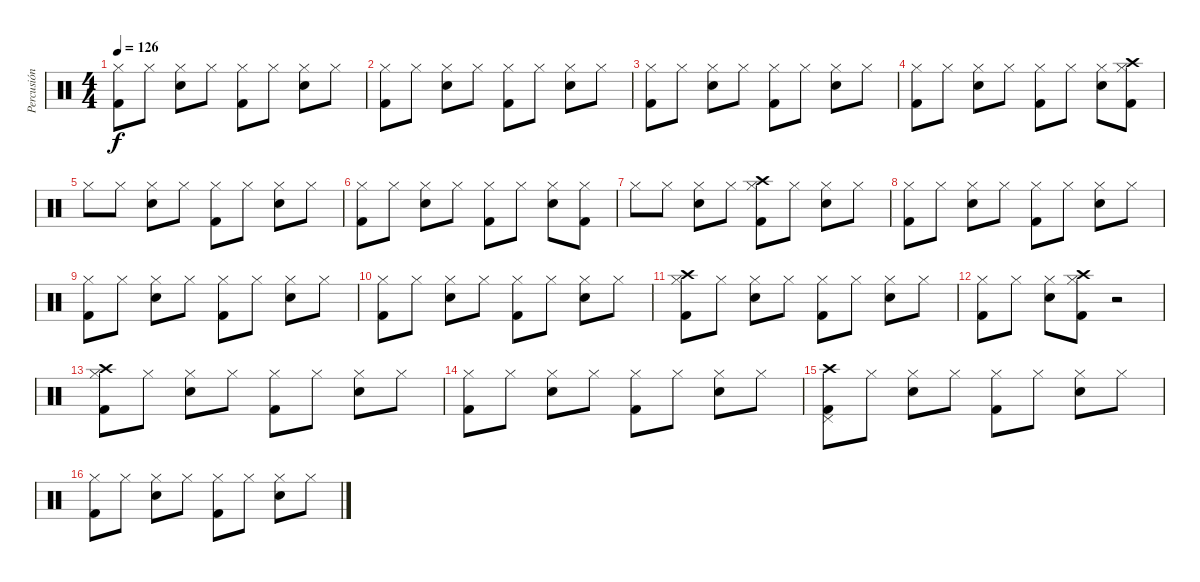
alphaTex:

\track ("Percusión" "Percusión") {instrument percussion}
\staff {score}
\articulation defaults
\ts (4 4)
\tempo 126
\clef neutral
\ks c
("Hi-Hat (closed)" "Kick (hit) 2").8{dy f} "Hi-Hat (closed)".8 ("Hi-Hat (closed)" "Snare (hit) 2").8 "Hi-Hat (closed)".8 ("Hi-Hat (closed)" "Kick (hit) 2").8 "Hi-Hat (closed)".8 ("Hi-Hat (closed)" "Snare (hit) 2").8 "Hi-Hat (closed)".8 |
("Hi-Hat (closed)" "Kick (hit) 2").8 "Hi-Hat (closed)".8 ("Hi-Hat (closed)" "Snare (hit) 2").8 "Hi-Hat (closed)".8 ("Hi-Hat (closed)" "Kick (hit) 2").8 "Hi-Hat (closed)".8 ("Hi-Hat (closed)" "Snare (hit) 2").8 "Hi-Hat (closed)".8 |
("Hi-Hat (closed)" "Kick (hit) 2").8 "Hi-Hat (closed)".8 ("Hi-Hat (closed)" "Snare (hit) 2").8 "Hi-Hat (closed)".8 ("Hi-Hat (closed)" "Kick (hit) 2").8 "Hi-Hat (closed)".8 ("Hi-Hat (closed)" "Snare (hit) 2").8 "Hi-Hat (closed)".8 |
("Hi-Hat (closed)" "Kick (hit) 2").8 "Hi-Hat (closed)".8 ("Hi-Hat (closed)" "Snare (hit) 2").8 "Hi-Hat (closed)".8 ("Hi-Hat (closed)" "Kick (hit) 2").8 "Hi-Hat (closed)".8 ("Hi-Hat (closed)" "Snare (hit) 2").8 ("Hi-Hat (closed)" "Crash high (hit)" "Kick (hit) 2").8 |
"Hi-Hat (closed)".8 "Hi-Hat (closed)".8 ("Hi-Hat (closed)" "Snare (hit) 2").8 "Hi-Hat (closed)".8 ("Hi-Hat (closed)" "Kick (hit) 2").8 "Hi-Hat (closed)".8 ("Hi-Hat (closed)" "Snare (hit) 2").8 "Hi-Hat (closed)".8 |
("Hi-Hat (closed)" "Kick (hit) 2").8 "Hi-Hat (closed)".8 ("Hi-Hat (closed)" "Snare (hit) 2").8 "Hi-Hat (closed)".8 ("Hi-Hat (closed)" "Kick (hit) 2").8 "Hi-Hat (closed)".8 ("Hi-Hat (closed)" "Snare (hit) 2").8 ("Hi-Hat (closed)" "Kick (hit) 2").8 |
"Hi-Hat (closed)".8 "Hi-Hat (closed)".8 ("Hi-Hat (closed)" "Snare (hit) 2").8 "Hi-Hat (closed)".8 ("Hi-Hat (closed)" "Crash high (hit)" "Kick (hit) 2").8 "Hi-Hat (closed)".8 ("Hi-Hat (closed)" "Snare (hit) 2").8 "Hi-Hat (closed)".8 |
("Hi-Hat (closed)" "Kick (hit) 2").8 "Hi-Hat (closed)".8 ("Hi-Hat (closed)" "Snare (hit) 2").8 "Hi-Hat (closed)".8 ("Hi-Hat (closed)" "Kick (hit) 2").8 "Hi-Hat (closed)".8 ("Hi-Hat (closed)" "Snare (hit) 2").8 "Hi-Hat (closed)".8 |
("Hi-Hat (closed)" "Kick (hit) 2").8 "Hi-Hat (closed)".8 ("Hi-Hat (closed)" "Snare (hit) 2").8 "Hi-Hat (closed)".8 ("Hi-Hat (closed)" "Kick (hit) 2").8 "Hi-Hat (closed)".8 ("Hi-Hat (closed)" "Snare (hit) 2").8 "Hi-Hat (closed)".8 |
("Hi-Hat (closed)" "Kick (hit) 2").8 "Hi-Hat (closed)".8 ("Hi-Hat (closed)" "Snare (hit) 2").8 "Hi-Hat (closed)".8 ("Hi-Hat (closed)" "Kick (hit) 2").8 "Hi-Hat (closed)".8 ("Hi-Hat (closed)" "Snare (hit) 2").8 "Hi-Hat (closed)".8 |
("Hi-Hat (closed)" "Crash high (hit)" "Kick (hit) 2").8 "Hi-Hat (closed)".8 ("Hi-Hat (closed)" "Snare (hit) 2").8 "Hi-Hat (closed)".8 ("Hi-Hat (closed)" "Kick (hit) 2").8 "Hi-Hat (closed)".8 ("Hi-Hat (closed)" "Snare (hit) 2").8 "Hi-Hat (closed)".8 |
("Hi-Hat (closed)" "Kick (hit) 2").8 "Hi-Hat (closed)".8 ("Hi-Hat (closed)" "Snare (hit) 2").8 ("Hi-Hat (closed)" "Crash high (hit)" "Kick (hit) 2").8 r.2 |
("Hi-Hat (closed)" "Crash high (hit)" "Kick (hit) 2").8 "Hi-Hat (closed)".8 ("Hi-Hat (closed)" "Snare (hit) 2").8 "Hi-Hat (closed)".8 ("Hi-Hat (closed)" "Kick (hit) 2").8 "Hi-Hat (closed)".8 ("Hi-Hat (closed)" "Snare (hit) 2").8 "Hi-Hat (closed)".8 |
("Hi-Hat (closed)" "Kick (hit) 2").8 "Hi-Hat (closed)".8 ("Hi-Hat (closed)" "Snare (hit) 2").8 "Hi-Hat (closed)".8 ("Hi-Hat (closed)" "Kick (hit) 2").8 "Hi-Hat (closed)".8 ("Hi-Hat (closed)" "Snare (hit) 2").8 "Hi-Hat (closed)".8 |
("Pedal Hi-Hat (hit)" "Crash high (hit)" "Kick (hit) 2").8 "Hi-Hat (closed)".8 ("Hi-Hat (closed)" "Snare (hit) 2").8 "Hi-Hat (closed)".8 ("Hi-Hat (closed)" "Kick (hit) 2").8 "Hi-Hat (closed)".8 ("Hi-Hat (closed)" "Snare (hit) 2").8 "Hi-Hat (closed)".8 |
("Hi-Hat (closed)" "Kick (hit) 2").8 "Hi-Hat (closed)".8 ("Hi-Hat (closed)" "Snare (hit) 2").8 "Hi-Hat (closed)".8 ("Hi-Hat (closed)" "Kick (hit) 2").8 "Hi-Hat (closed)".8 ("Hi-Hat (closed)" "Snare (hit) 2").8 "Hi-Hat (closed)".8
